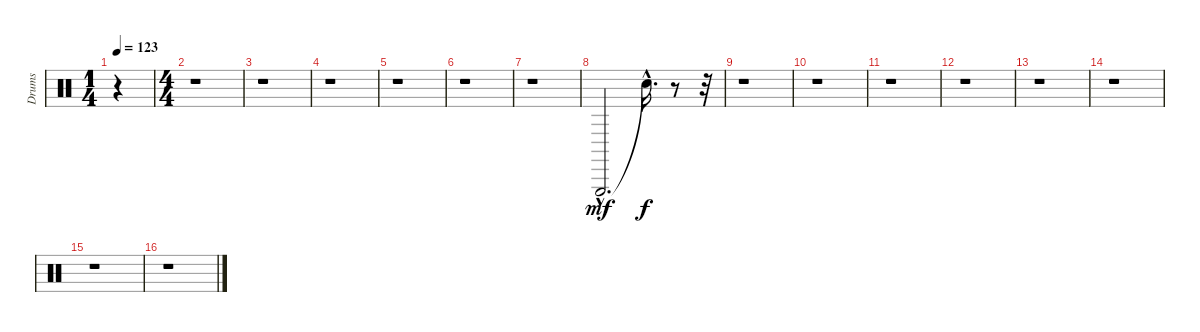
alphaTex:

\track ("Drums" "Drums") {instrument percussion}
\staff {score}
\articulation defaults
\ts (1 4)
\tempo 123
\clef neutral
\ks c
r.4{dy mf} |
\ts (4 4)
r.1 |
r.1 |
r.1 |
r.1 |
r.1 |
r.1 |
"Triangle (hit)"{hac}.2{d} "Snare (hit)"{hac t}.16{d dy f} r.8 r.32 |
r.1 |
r.1 |
r.1 |
r.1 |
r.1 |
r.1 |
r.1 |
r.1
